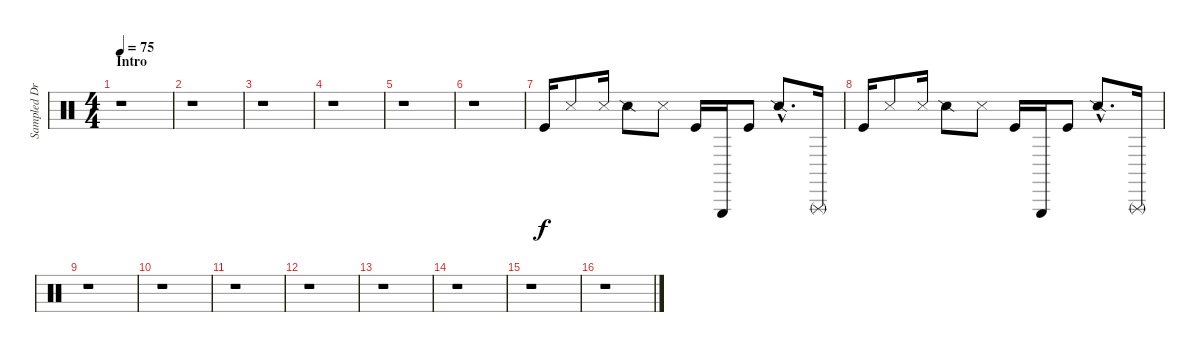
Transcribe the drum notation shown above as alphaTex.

\track ("Sampled Drums" "Sampled Dr") {instrument percussion}
\staff {score}
\articulation defaults
\ts (4 4)
\section ("" "Intro")
\tempo 75
\clef neutral
\ks c
r.1{dy f} |
r.1 |
r.1 |
r.1 |
r.1 |
r.1{volume 0} |
"Kick (hit)".16{volume 13} "Snare (side stick) 3".8 "Snare (side stick) 3".16 "Snare (side stick) 2".8 "Snare (side stick) 3".8 "Kick (hit)".16 "Triangle (hit)".16 "Kick (hit)".8 "Snare (side stick) 2"{hac}.8{d} "Triangle (rnute)".16 |
"Kick (hit)".16 "Snare (side stick) 3".8 "Snare (side stick) 3".16 "Snare (side stick) 2".8 "Snare (side stick) 3".8 "Kick (hit)".16 "Triangle (hit)".16 "Kick (hit)".8 "Snare (side stick) 2"{hac}.8{d} "Triangle (rnute)".16 |
r.1 |
r.1 |
r.1 |
r.1 |
r.1 |
r.1 |
r.1 |
r.1
